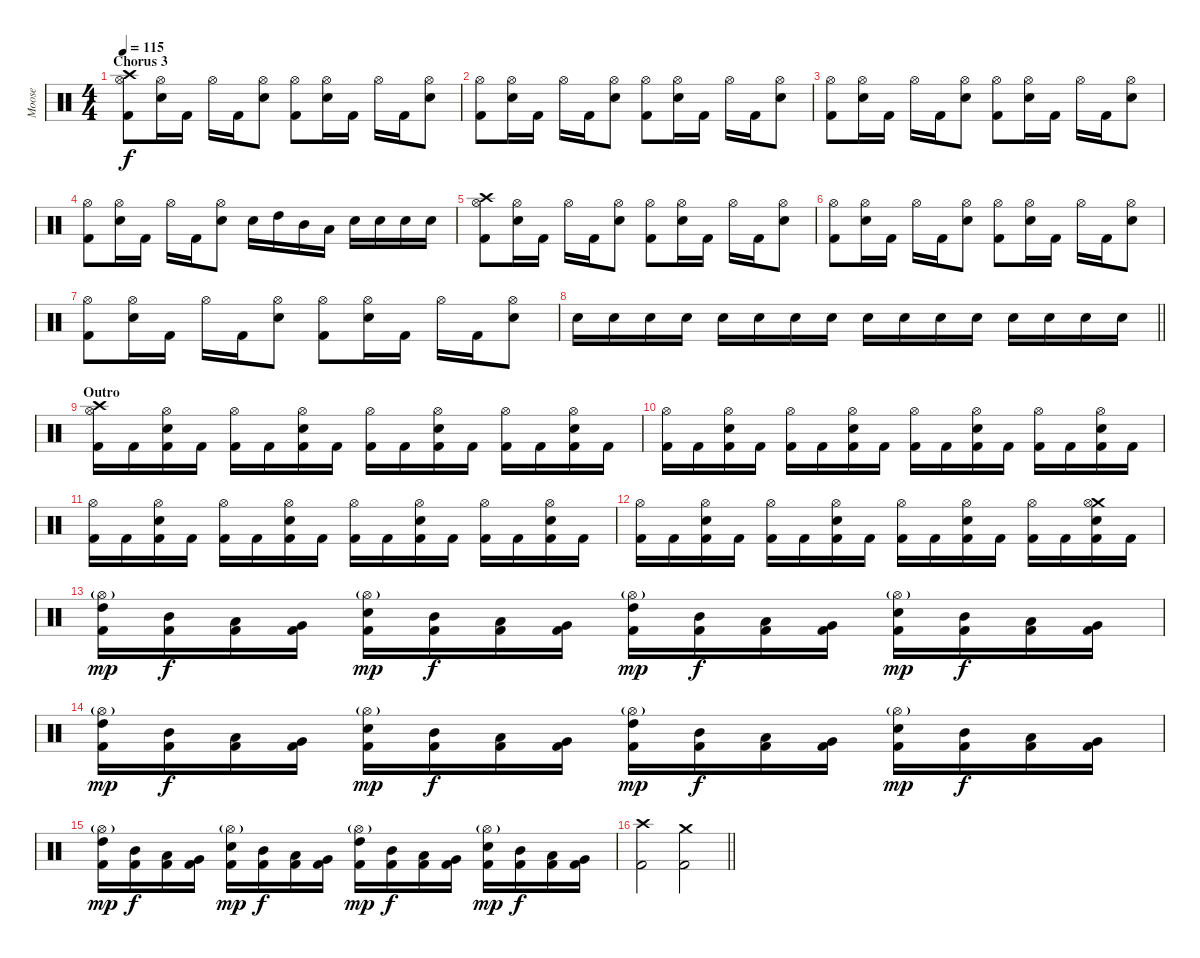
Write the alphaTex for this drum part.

\track ("Moose" "Moose") {instrument percussion}
\staff {score}
\articulation defaults
\ts (4 4)
\section ("" "Chorus 3")
\tempo 115
\clef neutral
\ks c
("Crash high (hit)" "Hi-Hat (open)" "Kick (hit) 2").8{dy f} ("Hi-Hat (open)" "Electric Snare (hit)").16 "Kick (hit) 2".16 "Hi-Hat (open)".16 "Kick (hit) 2".16 ("Hi-Hat (open)" "Electric Snare (hit)").8 ("Hi-Hat (open)" "Kick (hit) 2").8 ("Hi-Hat (open)" "Electric Snare (hit)").16 "Kick (hit) 2".16 "Hi-Hat (open)".16 "Kick (hit) 2".16 ("Hi-Hat (open)" "Electric Snare (hit)").8 |
("Hi-Hat (open)" "Kick (hit) 2").8 ("Hi-Hat (open)" "Electric Snare (hit)").16 "Kick (hit) 2".16 "Hi-Hat (open)".16 "Kick (hit) 2".16 ("Hi-Hat (open)" "Electric Snare (hit)").8 ("Hi-Hat (open)" "Kick (hit) 2").8 ("Hi-Hat (open)" "Electric Snare (hit)").16 "Kick (hit) 2".16 "Hi-Hat (open)".16 "Kick (hit) 2".16 ("Hi-Hat (open)" "Electric Snare (hit)").8 |
("Hi-Hat (open)" "Kick (hit) 2").8 ("Hi-Hat (open)" "Electric Snare (hit)").16 "Kick (hit) 2".16 "Hi-Hat (open)".16 "Kick (hit) 2".16 ("Hi-Hat (open)" "Electric Snare (hit)").8 ("Hi-Hat (open)" "Kick (hit) 2").8 ("Hi-Hat (open)" "Electric Snare (hit)").16 "Kick (hit) 2".16 "Hi-Hat (open)".16 "Kick (hit) 2".16 ("Hi-Hat (open)" "Electric Snare (hit)").8 |
("Hi-Hat (open)" "Kick (hit) 2").8 ("Hi-Hat (open)" "Electric Snare (hit)").16 "Kick (hit) 2".16 "Hi-Hat (open)".16 "Kick (hit) 2".16 ("Hi-Hat (open)" "Electric Snare (hit)").8 "Electric Snare (hit)".16 "High Tom (hit)".16 "Mid Tom (hit)".16 "Low Tom (hit)".16 "Electric Snare (hit)".16 "Electric Snare (hit)".16 "Electric Snare (hit)".16 "Electric Snare (hit)".16 |
("Crash high (hit)" "Hi-Hat (open)" "Kick (hit) 2").8 ("Hi-Hat (open)" "Electric Snare (hit)").16 "Kick (hit) 2".16 "Hi-Hat (open)".16 "Kick (hit) 2".16 ("Hi-Hat (open)" "Electric Snare (hit)").8 ("Hi-Hat (open)" "Kick (hit) 2").8 ("Hi-Hat (open)" "Electric Snare (hit)").16 "Kick (hit) 2".16 "Hi-Hat (open)".16 "Kick (hit) 2".16 ("Hi-Hat (open)" "Electric Snare (hit)").8 |
("Hi-Hat (open)" "Kick (hit) 2").8 ("Hi-Hat (open)" "Electric Snare (hit)").16 "Kick (hit) 2".16 "Hi-Hat (open)".16 "Kick (hit) 2".16 ("Hi-Hat (open)" "Electric Snare (hit)").8 ("Hi-Hat (open)" "Kick (hit) 2").8 ("Hi-Hat (open)" "Electric Snare (hit)").16 "Kick (hit) 2".16 "Hi-Hat (open)".16 "Kick (hit) 2".16 ("Hi-Hat (open)" "Electric Snare (hit)").8 |
("Hi-Hat (open)" "Kick (hit) 2").8 ("Hi-Hat (open)" "Electric Snare (hit)").16 "Kick (hit) 2".16 "Hi-Hat (open)".16 "Kick (hit) 2".16 ("Hi-Hat (open)" "Electric Snare (hit)").8 ("Hi-Hat (open)" "Kick (hit) 2").8 ("Hi-Hat (open)" "Electric Snare (hit)").16 "Kick (hit) 2".16 "Hi-Hat (open)".16 "Kick (hit) 2".16 ("Hi-Hat (open)" "Electric Snare (hit)").8 |
\barLineRight lightlight "Electric Snare (hit)".16 "Electric Snare (hit)".16 "Electric Snare (hit)".16 "Electric Snare (hit)".16 "Electric Snare (hit)".16 "Electric Snare (hit)".16 "Electric Snare (hit)".16 "Electric Snare (hit)".16 "Electric Snare (hit)".16 "Electric Snare (hit)".16 "Electric Snare (hit)".16 "Electric Snare (hit)".16 "Electric Snare (hit)".16 "Electric Snare (hit)".16 "Electric Snare (hit)".16 "Electric Snare (hit)".16
|
\section ("" "Outro")
("Crash high (hit)" "Hi-Hat (open)" "Kick (hit) 2").16 "Kick (hit) 2".16 ("Hi-Hat (open)" "Electric Snare (hit)" "Kick (hit) 2").16 "Kick (hit) 2".16 ("Hi-Hat (open)" "Kick (hit) 2").16 "Kick (hit) 2".16 ("Hi-Hat (open)" "Electric Snare (hit)" "Kick (hit) 2").16 "Kick (hit) 2".16 ("Hi-Hat (open)" "Kick (hit) 2").16 "Kick (hit) 2".16 ("Hi-Hat (open)" "Electric Snare (hit)" "Kick (hit) 2").16 "Kick (hit) 2".16 ("Hi-Hat (open)" "Kick (hit) 2").16 "Kick (hit) 2".16 ("Hi-Hat (open)" "Electric Snare (hit)" "Kick (hit) 2").16 "Kick (hit) 2".16 |
("Hi-Hat (open)" "Kick (hit) 2").16 "Kick (hit) 2".16 ("Hi-Hat (open)" "Electric Snare (hit)" "Kick (hit) 2").16 "Kick (hit) 2".16 ("Hi-Hat (open)" "Kick (hit) 2").16 "Kick (hit) 2".16 ("Hi-Hat (open)" "Electric Snare (hit)" "Kick (hit) 2").16 "Kick (hit) 2".16 ("Hi-Hat (open)" "Kick (hit) 2").16 "Kick (hit) 2".16 ("Hi-Hat (open)" "Electric Snare (hit)" "Kick (hit) 2").16 "Kick (hit) 2".16 ("Hi-Hat (open)" "Kick (hit) 2").16 "Kick (hit) 2".16 ("Hi-Hat (open)" "Electric Snare (hit)" "Kick (hit) 2").16 "Kick (hit) 2".16 |
("Hi-Hat (open)" "Kick (hit) 2").16 "Kick (hit) 2".16 ("Hi-Hat (open)" "Electric Snare (hit)" "Kick (hit) 2").16 "Kick (hit) 2".16 ("Hi-Hat (open)" "Kick (hit) 2").16 "Kick (hit) 2".16 ("Hi-Hat (open)" "Electric Snare (hit)" "Kick (hit) 2").16 "Kick (hit) 2".16 ("Hi-Hat (open)" "Kick (hit) 2").16 "Kick (hit) 2".16 ("Hi-Hat (open)" "Electric Snare (hit)" "Kick (hit) 2").16 "Kick (hit) 2".16 ("Hi-Hat (open)" "Kick (hit) 2").16 "Kick (hit) 2".16 ("Hi-Hat (open)" "Electric Snare (hit)" "Kick (hit) 2").16 "Kick (hit) 2".16 |
("Hi-Hat (open)" "Kick (hit) 2").16 "Kick (hit) 2".16 ("Hi-Hat (open)" "Electric Snare (hit)" "Kick (hit) 2").16 "Kick (hit) 2".16 ("Hi-Hat (open)" "Kick (hit) 2").16 "Kick (hit) 2".16 ("Hi-Hat (open)" "Electric Snare (hit)" "Kick (hit) 2").16 "Kick (hit) 2".16 ("Hi-Hat (open)" "Kick (hit) 2").16 "Kick (hit) 2".16 ("Hi-Hat (open)" "Electric Snare (hit)" "Kick (hit) 2").16 "Kick (hit) 2".16 ("Hi-Hat (open)" "Kick (hit) 2").16 "Kick (hit) 2".16 ("Crash medium (hit)" "Hi-Hat (open)" "Electric Snare (hit)" "Kick (hit) 2").16 "Kick (hit) 2".16 |
("Hi-Hat (open)"{g} "High Tom (hit)" "Kick (hit) 2").16{dy mp} ("Mid Tom (hit)" "Kick (hit) 2").16{dy f} ("Low Tom (hit)" "Kick (hit) 2").16 ("Very Low Tom (hit)" "Kick (hit) 2").16 ("Hi-Hat (open)"{g} "Electric Snare (hit)" "Kick (hit) 2").16{dy mp} ("Mid Tom (hit)" "Kick (hit) 2").16{dy f} ("Low Tom (hit)" "Kick (hit) 2").16 ("Very Low Tom (hit)" "Kick (hit) 2").16 ("Hi-Hat (open)"{g} "High Tom (hit)" "Kick (hit) 2").16{dy mp} ("Mid Tom (hit)" "Kick (hit) 2").16{dy f} ("Low Tom (hit)" "Kick (hit) 2").16 ("Very Low Tom (hit)" "Kick (hit) 2").16 ("Hi-Hat (open)"{g} "Electric Snare (hit)" "Kick (hit) 2").16{dy mp} ("Mid Tom (hit)" "Kick (hit) 2").16{dy f} ("Low Tom (hit)" "Kick (hit) 2").16 ("Very Low Tom (hit)" "Kick (hit) 2").16 |
("Hi-Hat (open)"{g} "High Tom (hit)" "Kick (hit) 2").16{dy mp} ("Mid Tom (hit)" "Kick (hit) 2").16{dy f} ("Low Tom (hit)" "Kick (hit) 2").16 ("Very Low Tom (hit)" "Kick (hit) 2").16 ("Hi-Hat (open)"{g} "Electric Snare (hit)" "Kick (hit) 2").16{dy mp} ("Mid Tom (hit)" "Kick (hit) 2").16{dy f} ("Low Tom (hit)" "Kick (hit) 2").16 ("Very Low Tom (hit)" "Kick (hit) 2").16 ("Hi-Hat (open)"{g} "High Tom (hit)" "Kick (hit) 2").16{dy mp} ("Mid Tom (hit)" "Kick (hit) 2").16{dy f} ("Low Tom (hit)" "Kick (hit) 2").16 ("Very Low Tom (hit)" "Kick (hit) 2").16 ("Hi-Hat (open)"{g} "Electric Snare (hit)" "Kick (hit) 2").16{dy mp} ("Mid Tom (hit)" "Kick (hit) 2").16{dy f} ("Low Tom (hit)" "Kick (hit) 2").16 ("Very Low Tom (hit)" "Kick (hit) 2").16 |
("Hi-Hat (open)"{g} "High Tom (hit)" "Kick (hit) 2").16{dy mp} ("Mid Tom (hit)" "Kick (hit) 2").16{dy f} ("Low Tom (hit)" "Kick (hit) 2").16 ("Very Low Tom (hit)" "Kick (hit) 2").16 ("Hi-Hat (open)"{g} "Electric Snare (hit)" "Kick (hit) 2").16{dy mp} ("Mid Tom (hit)" "Kick (hit) 2").16{dy f} ("Low Tom (hit)" "Kick (hit) 2").16 ("Very Low Tom (hit)" "Kick (hit) 2").16 ("Hi-Hat (open)"{g} "High Tom (hit)" "Kick (hit) 2").16{dy mp} ("Mid Tom (hit)" "Kick (hit) 2").16{dy f} ("Low Tom (hit)" "Kick (hit) 2").16 ("Very Low Tom (hit)" "Kick (hit) 2").16 ("Hi-Hat (open)"{g} "Electric Snare (hit)" "Kick (hit) 2").16{dy mp} ("Mid Tom (hit)" "Kick (hit) 2").16{dy f} ("Low Tom (hit)" "Kick (hit) 2").16 ("Very Low Tom (hit)" "Kick (hit) 2").16 |
\barLineRight lightlight
("Crash high (hit)" "Kick (hit) 2").2 ("Crash medium (hit)" "Kick (hit) 2").2
